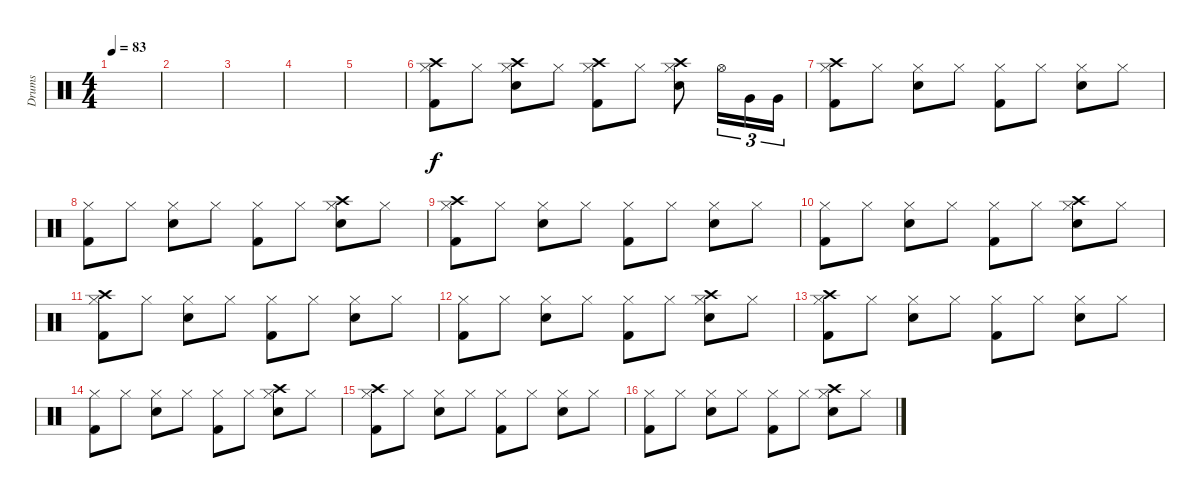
\track ("Drums" "Drums") {instrument percussion}
\staff {score}
\articulation defaults
\ts (4 4)
\tempo 83
\clef neutral
\ks c
|
|
|
|
|
("Crash high (hit)" "Hi-Hat (closed)" "Kick (hit) 2").8 "Hi-Hat (closed)".8 ("Crash high (hit)" "Hi-Hat (closed)" "Snare (hit) 2").8 "Hi-Hat (closed)".8 ("Crash high (hit)" "Hi-Hat (closed)" "Kick (hit) 2").8 "Hi-Hat (closed)".8 ("Crash high (hit)" "Hi-Hat (closed)" "Snare (hit) 2").8 "Hi-Hat (open)".16{tu (3 2)} "Very Low Tom (hit)".16{tu (3 2)} "Very Low Tom (hit)".16{tu (3 2)} |
("Crash high (hit)" "Hi-Hat (closed)" "Kick (hit) 2").8 "Hi-Hat (closed)".8 ("Hi-Hat (closed)" "Snare (hit) 2").8 "Hi-Hat (closed)".8 ("Hi-Hat (closed)" "Kick (hit) 2").8 "Hi-Hat (closed)".8 ("Hi-Hat (closed)" "Snare (hit) 2").8 "Hi-Hat (closed)".8 |
("Hi-Hat (closed)" "Kick (hit) 2").8 "Hi-Hat (closed)".8 ("Hi-Hat (closed)" "Snare (hit) 2").8 "Hi-Hat (closed)".8 ("Hi-Hat (closed)" "Kick (hit) 2").8 "Hi-Hat (closed)".8 ("Crash high (hit)" "Hi-Hat (closed)" "Snare (hit) 2").8 "Hi-Hat (closed)".8 |
("Crash high (hit)" "Hi-Hat (closed)" "Kick (hit) 2").8 "Hi-Hat (closed)".8 ("Hi-Hat (closed)" "Snare (hit) 2").8 "Hi-Hat (closed)".8 ("Hi-Hat (closed)" "Kick (hit) 2").8 "Hi-Hat (closed)".8 ("Hi-Hat (closed)" "Snare (hit) 2").8 "Hi-Hat (closed)".8 |
("Hi-Hat (closed)" "Kick (hit) 2").8 "Hi-Hat (closed)".8 ("Hi-Hat (closed)" "Snare (hit) 2").8 "Hi-Hat (closed)".8 ("Hi-Hat (closed)" "Kick (hit) 2").8 "Hi-Hat (closed)".8 ("Crash high (hit)" "Hi-Hat (closed)" "Snare (hit) 2").8 "Hi-Hat (closed)".8 |
("Crash high (hit)" "Hi-Hat (closed)" "Kick (hit) 2").8 "Hi-Hat (closed)".8 ("Hi-Hat (closed)" "Snare (hit) 2").8 "Hi-Hat (closed)".8 ("Hi-Hat (closed)" "Kick (hit) 2").8 "Hi-Hat (closed)".8 ("Hi-Hat (closed)" "Snare (hit) 2").8 "Hi-Hat (closed)".8 |
("Hi-Hat (closed)" "Kick (hit) 2").8 "Hi-Hat (closed)".8 ("Hi-Hat (closed)" "Snare (hit) 2").8 "Hi-Hat (closed)".8 ("Hi-Hat (closed)" "Kick (hit) 2").8 "Hi-Hat (closed)".8 ("Crash high (hit)" "Hi-Hat (closed)" "Snare (hit) 2").8 "Hi-Hat (closed)".8 |
("Crash high (hit)" "Hi-Hat (closed)" "Kick (hit) 2").8 "Hi-Hat (closed)".8 ("Hi-Hat (closed)" "Snare (hit) 2").8 "Hi-Hat (closed)".8 ("Hi-Hat (closed)" "Kick (hit) 2").8 "Hi-Hat (closed)".8 ("Hi-Hat (closed)" "Snare (hit) 2").8 "Hi-Hat (closed)".8 |
("Hi-Hat (closed)" "Kick (hit) 2").8 "Hi-Hat (closed)".8 ("Hi-Hat (closed)" "Snare (hit) 2").8 "Hi-Hat (closed)".8 ("Hi-Hat (closed)" "Kick (hit) 2").8 "Hi-Hat (closed)".8 ("Crash high (hit)" "Hi-Hat (closed)" "Snare (hit) 2").8 "Hi-Hat (closed)".8 |
("Crash high (hit)" "Hi-Hat (closed)" "Kick (hit) 2").8 "Hi-Hat (closed)".8 ("Hi-Hat (closed)" "Snare (hit) 2").8 "Hi-Hat (closed)".8 ("Hi-Hat (closed)" "Kick (hit) 2").8 "Hi-Hat (closed)".8 ("Hi-Hat (closed)" "Snare (hit) 2").8 "Hi-Hat (closed)".8 |
("Hi-Hat (closed)" "Kick (hit) 2").8 "Hi-Hat (closed)".8 ("Hi-Hat (closed)" "Snare (hit) 2").8 "Hi-Hat (closed)".8 ("Hi-Hat (closed)" "Kick (hit) 2").8 "Hi-Hat (closed)".8 ("Crash high (hit)" "Hi-Hat (closed)" "Snare (hit) 2").8 "Hi-Hat (closed)".8
